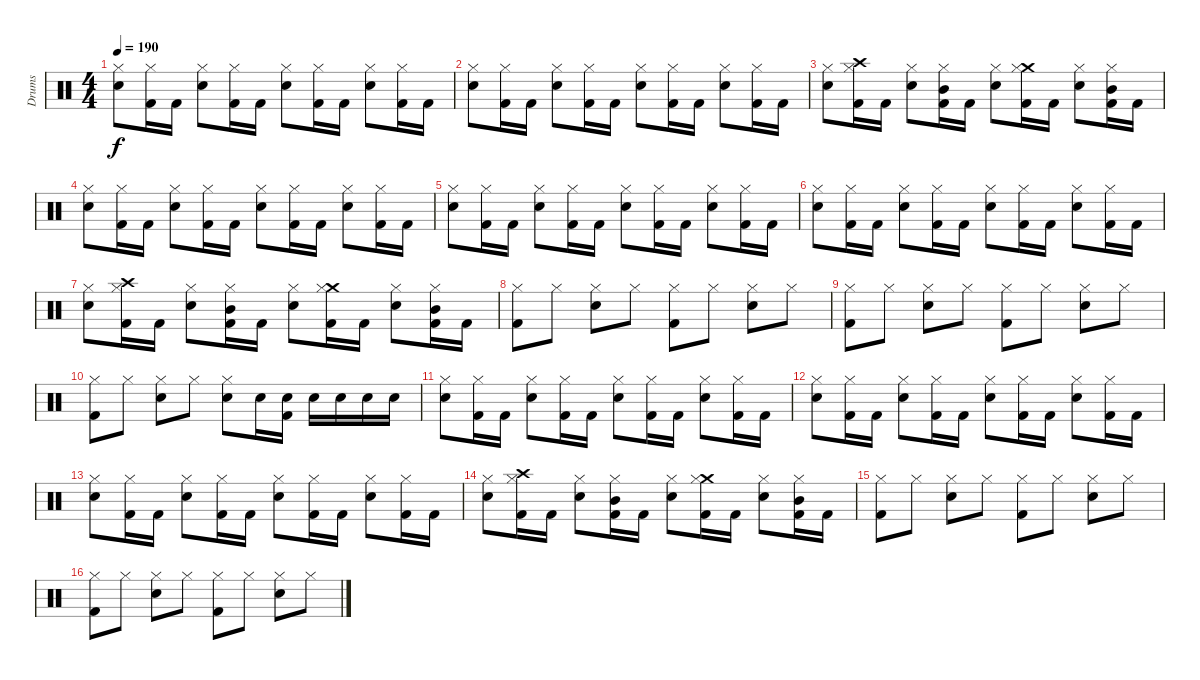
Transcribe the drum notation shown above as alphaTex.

\track ("Drums" "Drums") {instrument percussion}
\staff {score}
\articulation defaults
\ts (4 4)
\tempo 190
\clef neutral
\ks c
("Snare (hit) 2" "Hi-Hat (closed)").8{dy f} ("Kick (hit) 2" "Hi-Hat (closed)").16 "Kick (hit) 2".16 ("Snare (hit) 2" "Hi-Hat (closed)").8 ("Kick (hit) 2" "Hi-Hat (closed)").16 "Kick (hit) 2".16 ("Snare (hit) 2" "Hi-Hat (closed)").8 ("Kick (hit) 2" "Hi-Hat (closed)").16 "Kick (hit) 2".16 ("Snare (hit) 2" "Hi-Hat (closed)").8 ("Kick (hit) 2" "Hi-Hat (closed)").16 "Kick (hit) 2".16 |
("Snare (hit) 2" "Hi-Hat (closed)").8 ("Kick (hit) 2" "Hi-Hat (closed)").16 "Kick (hit) 2".16 ("Snare (hit) 2" "Hi-Hat (closed)").8 ("Kick (hit) 2" "Hi-Hat (closed)").16 "Kick (hit) 2".16 ("Snare (hit) 2" "Hi-Hat (closed)").8 ("Kick (hit) 2" "Hi-Hat (closed)").16 "Kick (hit) 2".16 ("Snare (hit) 2" "Hi-Hat (closed)").8 ("Kick (hit) 2" "Hi-Hat (closed)").16 "Kick (hit) 2".16 |
("Snare (hit) 2" "Hi-Hat (closed)").8 ("Kick (hit) 2" "Crash high (hit)" "Hi-Hat (closed)").16 "Kick (hit) 2".16 ("Snare (hit) 2" "Hi-Hat (closed)").8 ("Kick (hit) 2" "Mid Tom (hit)" "Hi-Hat (closed)").16 "Kick (hit) 2".16 ("Snare (hit) 2" "Hi-Hat (closed)").8 ("Kick (hit) 2" "Crash medium (hit)" "Hi-Hat (closed)").16 "Kick (hit) 2".16 ("Snare (hit) 2" "Hi-Hat (closed)").8 ("Kick (hit) 2" "Mid Tom (hit)" "Hi-Hat (closed)").16 "Kick (hit) 2".16 |
("Snare (hit) 2" "Hi-Hat (closed)").8 ("Kick (hit) 2" "Hi-Hat (closed)").16 "Kick (hit) 2".16 ("Snare (hit) 2" "Hi-Hat (closed)").8 ("Kick (hit) 2" "Hi-Hat (closed)").16 "Kick (hit) 2".16 ("Snare (hit) 2" "Hi-Hat (closed)").8 ("Kick (hit) 2" "Hi-Hat (closed)").16 "Kick (hit) 2".16 ("Snare (hit) 2" "Hi-Hat (closed)").8 ("Kick (hit) 2" "Hi-Hat (closed)").16 "Kick (hit) 2".16 |
("Snare (hit) 2" "Hi-Hat (closed)").8 ("Kick (hit) 2" "Hi-Hat (closed)").16 "Kick (hit) 2".16 ("Snare (hit) 2" "Hi-Hat (closed)").8 ("Kick (hit) 2" "Hi-Hat (closed)").16 "Kick (hit) 2".16 ("Snare (hit) 2" "Hi-Hat (closed)").8 ("Kick (hit) 2" "Hi-Hat (closed)").16 "Kick (hit) 2".16 ("Snare (hit) 2" "Hi-Hat (closed)").8 ("Kick (hit) 2" "Hi-Hat (closed)").16 "Kick (hit) 2".16 |
("Snare (hit) 2" "Hi-Hat (closed)").8 ("Kick (hit) 2" "Hi-Hat (closed)").16 "Kick (hit) 2".16 ("Snare (hit) 2" "Hi-Hat (closed)").8 ("Kick (hit) 2" "Hi-Hat (closed)").16 "Kick (hit) 2".16 ("Snare (hit) 2" "Hi-Hat (closed)").8 ("Kick (hit) 2" "Hi-Hat (closed)").16 "Kick (hit) 2".16 ("Snare (hit) 2" "Hi-Hat (closed)").8 ("Kick (hit) 2" "Hi-Hat (closed)").16 "Kick (hit) 2".16 |
("Snare (hit) 2" "Hi-Hat (closed)").8 ("Kick (hit) 2" "Crash high (hit)" "Hi-Hat (closed)").16 "Kick (hit) 2".16 ("Snare (hit) 2" "Hi-Hat (closed)").8 ("Kick (hit) 2" "Mid Tom (hit)" "Hi-Hat (closed)").16 "Kick (hit) 2".16 ("Snare (hit) 2" "Hi-Hat (closed)").8 ("Kick (hit) 2" "Crash medium (hit)" "Hi-Hat (closed)").16 "Kick (hit) 2".16 ("Snare (hit) 2" "Hi-Hat (closed)").8 ("Kick (hit) 2" "Mid Tom (hit)" "Hi-Hat (closed)").16 "Kick (hit) 2".16 |
("Kick (hit) 2" "Hi-Hat (closed)").8 "Hi-Hat (closed)".8 ("Snare (hit) 2" "Hi-Hat (closed)").8 "Hi-Hat (closed)".8 ("Kick (hit) 2" "Hi-Hat (closed)").8 "Hi-Hat (closed)".8 ("Snare (hit) 2" "Hi-Hat (closed)").8 "Hi-Hat (closed)".8 |
("Kick (hit) 2" "Hi-Hat (closed)").8 "Hi-Hat (closed)".8 ("Snare (hit) 2" "Hi-Hat (closed)").8 "Hi-Hat (closed)".8 ("Kick (hit) 2" "Hi-Hat (closed)").8 "Hi-Hat (closed)".8 ("Snare (hit) 2" "Hi-Hat (closed)").8 "Hi-Hat (closed)".8 |
("Kick (hit) 2" "Hi-Hat (closed)").8 "Hi-Hat (closed)".8 ("Snare (hit) 2" "Hi-Hat (closed)").8 "Hi-Hat (closed)".8 ("Snare (hit) 2" "Hi-Hat (closed)").8 "Snare (hit) 2".16 ("Snare (hit) 2" "Kick (hit) 2").16 "Snare (hit) 2".16 "Snare (hit) 2".16 "Snare (hit) 2".16 "Snare (hit) 2".16 |
("Snare (hit) 2" "Hi-Hat (closed)").8 ("Kick (hit) 2" "Hi-Hat (closed)").16 "Kick (hit) 2".16 ("Snare (hit) 2" "Hi-Hat (closed)").8 ("Kick (hit) 2" "Hi-Hat (closed)").16 "Kick (hit) 2".16 ("Snare (hit) 2" "Hi-Hat (closed)").8 ("Kick (hit) 2" "Hi-Hat (closed)").16 "Kick (hit) 2".16 ("Snare (hit) 2" "Hi-Hat (closed)").8 ("Kick (hit) 2" "Hi-Hat (closed)").16 "Kick (hit) 2".16 |
("Snare (hit) 2" "Hi-Hat (closed)").8 ("Kick (hit) 2" "Hi-Hat (closed)").16 "Kick (hit) 2".16 ("Snare (hit) 2" "Hi-Hat (closed)").8 ("Kick (hit) 2" "Hi-Hat (closed)").16 "Kick (hit) 2".16 ("Snare (hit) 2" "Hi-Hat (closed)").8 ("Kick (hit) 2" "Hi-Hat (closed)").16 "Kick (hit) 2".16 ("Snare (hit) 2" "Hi-Hat (closed)").8 ("Kick (hit) 2" "Hi-Hat (closed)").16 "Kick (hit) 2".16 |
("Snare (hit) 2" "Hi-Hat (closed)").8 ("Kick (hit) 2" "Hi-Hat (closed)").16 "Kick (hit) 2".16 ("Snare (hit) 2" "Hi-Hat (closed)").8 ("Kick (hit) 2" "Hi-Hat (closed)").16 "Kick (hit) 2".16 ("Snare (hit) 2" "Hi-Hat (closed)").8 ("Kick (hit) 2" "Hi-Hat (closed)").16 "Kick (hit) 2".16 ("Snare (hit) 2" "Hi-Hat (closed)").8 ("Kick (hit) 2" "Hi-Hat (closed)").16 "Kick (hit) 2".16 |
("Snare (hit) 2" "Hi-Hat (closed)").8 ("Kick (hit) 2" "Crash high (hit)" "Hi-Hat (closed)").16 "Kick (hit) 2".16 ("Snare (hit) 2" "Hi-Hat (closed)").8 ("Kick (hit) 2" "Mid Tom (hit)" "Hi-Hat (closed)").16 "Kick (hit) 2".16 ("Snare (hit) 2" "Hi-Hat (closed)").8 ("Kick (hit) 2" "Crash medium (hit)" "Hi-Hat (closed)").16 "Kick (hit) 2".16 ("Snare (hit) 2" "Hi-Hat (closed)").8 ("Kick (hit) 2" "Mid Tom (hit)" "Hi-Hat (closed)").16 "Kick (hit) 2".16 |
("Kick (hit) 2" "Hi-Hat (closed)").8 "Hi-Hat (closed)".8 ("Snare (hit) 2" "Hi-Hat (closed)").8 "Hi-Hat (closed)".8 ("Kick (hit) 2" "Hi-Hat (closed)").8 "Hi-Hat (closed)".8 ("Snare (hit) 2" "Hi-Hat (closed)").8 "Hi-Hat (closed)".8 |
("Kick (hit) 2" "Hi-Hat (closed)").8 "Hi-Hat (closed)".8 ("Snare (hit) 2" "Hi-Hat (closed)").8 "Hi-Hat (closed)".8 ("Kick (hit) 2" "Hi-Hat (closed)").8 "Hi-Hat (closed)".8 ("Snare (hit) 2" "Hi-Hat (closed)").8 "Hi-Hat (closed)".8
